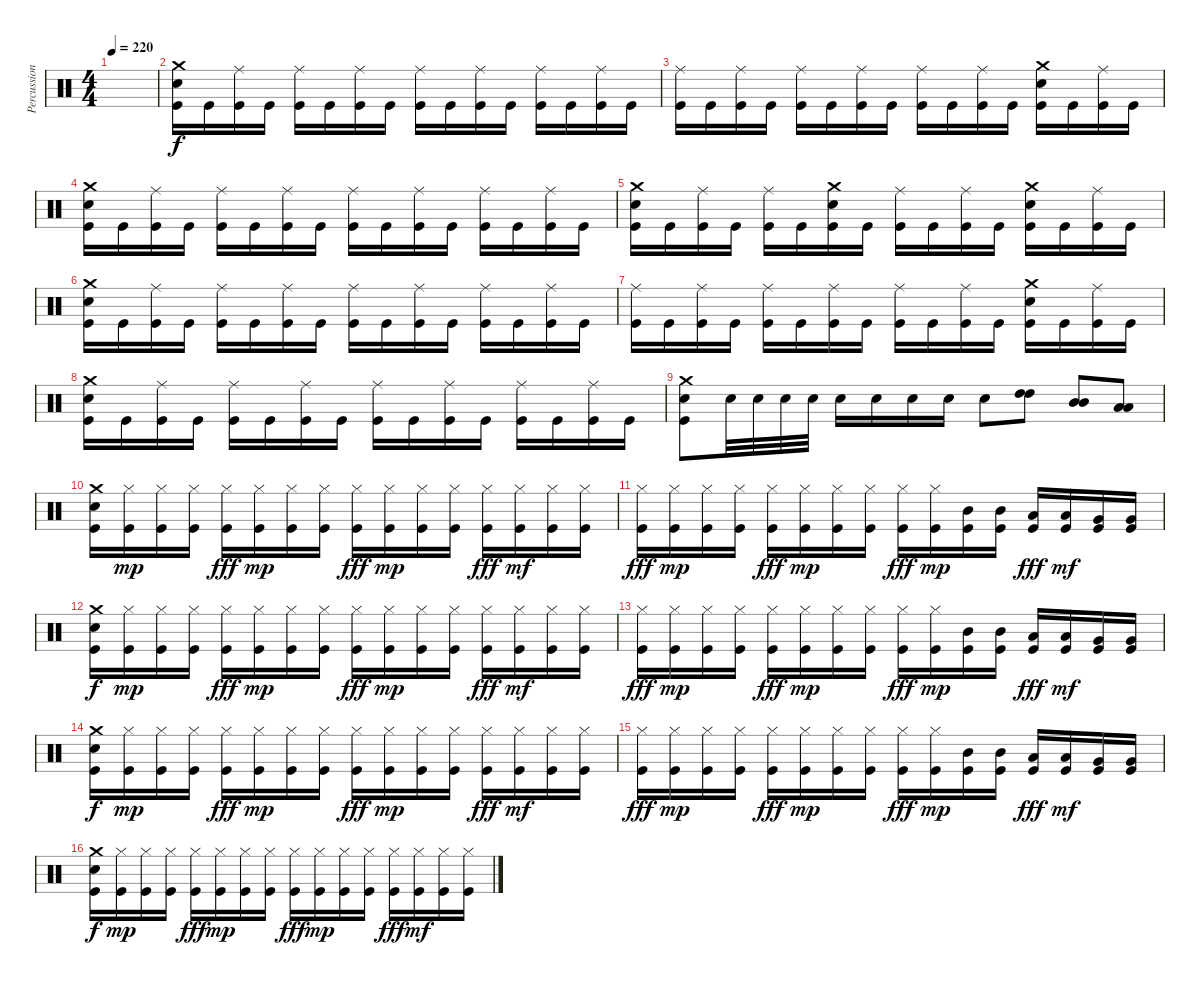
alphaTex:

\track ("Percussion" "Percussion") {instrument percussion}
\staff {score}
\articulation defaults
\ts (4 4)
\tempo 220
\tempo 140
\tempo 220
\clef neutral
\ks c
|
("Crash medium (hit)" "Snare (hit) 2" "Kick (hit)").16 "Kick (hit)".16 ("Ride (middle)" "Kick (hit)").16 "Kick (hit)".16 ("Ride (middle)" "Kick (hit)").16 "Kick (hit)".16 ("Ride (middle)" "Kick (hit)").16 "Kick (hit)".16 ("Ride (middle)" "Kick (hit)").16 "Kick (hit)".16 ("Ride (middle)" "Kick (hit)").16 "Kick (hit)".16 ("Ride (middle)" "Kick (hit)").16 "Kick (hit)".16 ("Ride (middle)" "Kick (hit)").16 "Kick (hit)".16 |
("Ride (middle)" "Kick (hit)").16 "Kick (hit)".16 ("Ride (middle)" "Kick (hit)").16 "Kick (hit)".16 ("Ride (middle)" "Kick (hit)").16 "Kick (hit)".16 ("Ride (middle)" "Kick (hit)").16 "Kick (hit)".16 ("Ride (middle)" "Kick (hit)").16 "Kick (hit)".16 ("Ride (middle)" "Kick (hit)").16 "Kick (hit)".16 ("Crash medium (hit)" "Snare (hit) 2" "Kick (hit)").16 "Kick (hit)".16 ("Ride (middle)" "Kick (hit)").16 "Kick (hit)".16 |
("Crash medium (hit)" "Snare (hit) 2" "Kick (hit)").16 "Kick (hit)".16 ("Ride (middle)" "Kick (hit)").16 "Kick (hit)".16 ("Ride (middle)" "Kick (hit)").16 "Kick (hit)".16 ("Ride (middle)" "Kick (hit)").16 "Kick (hit)".16 ("Ride (middle)" "Kick (hit)").16 "Kick (hit)".16 ("Ride (middle)" "Kick (hit)").16 "Kick (hit)".16 ("Ride (middle)" "Kick (hit)").16 "Kick (hit)".16 ("Ride (middle)" "Kick (hit)").16 "Kick (hit)".16 |
("Crash medium (hit)" "Snare (hit) 2" "Kick (hit)").16 "Kick (hit)".16 ("Ride (middle)" "Kick (hit)").16 "Kick (hit)".16 ("Ride (middle)" "Kick (hit)").16 "Kick (hit)".16 ("Crash medium (hit)" "Snare (hit) 2" "Kick (hit)").16 "Kick (hit)".16 ("Ride (middle)" "Kick (hit)").16 "Kick (hit)".16 ("Ride (middle)" "Kick (hit)").16 "Kick (hit)".16 ("Crash medium (hit)" "Snare (hit) 2" "Kick (hit)").16 "Kick (hit)".16 ("Ride (middle)" "Kick (hit)").16 "Kick (hit)".16 |
("Crash medium (hit)" "Snare (hit) 2" "Kick (hit)").16 "Kick (hit)".16 ("Ride (middle)" "Kick (hit)").16 "Kick (hit)".16 ("Ride (middle)" "Kick (hit)").16 "Kick (hit)".16 ("Ride (middle)" "Kick (hit)").16 "Kick (hit)".16 ("Ride (middle)" "Kick (hit)").16 "Kick (hit)".16 ("Ride (middle)" "Kick (hit)").16 "Kick (hit)".16 ("Ride (middle)" "Kick (hit)").16 "Kick (hit)".16 ("Ride (middle)" "Kick (hit)").16 "Kick (hit)".16 |
("Ride (middle)" "Kick (hit)").16 "Kick (hit)".16 ("Ride (middle)" "Kick (hit)").16 "Kick (hit)".16 ("Ride (middle)" "Kick (hit)").16 "Kick (hit)".16 ("Ride (middle)" "Kick (hit)").16 "Kick (hit)".16 ("Ride (middle)" "Kick (hit)").16 "Kick (hit)".16 ("Ride (middle)" "Kick (hit)").16 "Kick (hit)".16 ("Crash medium (hit)" "Snare (hit) 2" "Kick (hit)").16 "Kick (hit)".16 ("Ride (middle)" "Kick (hit)").16 "Kick (hit)".16 |
("Crash medium (hit)" "Snare (hit) 2" "Kick (hit)").16 "Kick (hit)".16 ("Ride (middle)" "Kick (hit)").16 "Kick (hit)".16 ("Ride (middle)" "Kick (hit)").16 "Kick (hit)".16 ("Ride (middle)" "Kick (hit)").16 "Kick (hit)".16 ("Ride (middle)" "Kick (hit)").16 "Kick (hit)".16 ("Ride (middle)" "Kick (hit)").16 "Kick (hit)".16 ("Ride (middle)" "Kick (hit)").16 "Kick (hit)".16 ("Ride (middle)" "Kick (hit)").16 "Kick (hit)".16 |
("Crash medium (hit)" "Snare (hit) 2" "Kick (hit)").8 "Snare (hit) 2".32 "Snare (hit) 2".32 "Snare (hit) 2".32 "Snare (hit) 2".32 "Snare (hit) 2".16 "Snare (hit) 2".16 "Snare (hit) 2".16 "Snare (hit) 2".16 "Snare (hit) 2".8 ("High Tom (hit)" "High Tom (hit)").8 ("Mid Tom (hit)" "Mid Tom (hit)").8 ("Low Tom (hit)" "Low Tom (hit)").8 |
("Crash medium (hit)" "Snare (hit) 2" "Kick (hit)").16 ("Hi-Hat (closed)" "Kick (hit)").16{dy mp} ("Hi-Hat (closed)" "Kick (hit)").16 ("Hi-Hat (closed)" "Kick (hit)").16 ("Hi-Hat (closed)" "Kick (hit)").16{dy fff} ("Hi-Hat (closed)" "Kick (hit)").16{dy mp} ("Hi-Hat (closed)" "Kick (hit)").16 ("Hi-Hat (closed)" "Kick (hit)").16 ("Hi-Hat (closed)" "Kick (hit)").16{dy fff} ("Hi-Hat (closed)" "Kick (hit)").16{dy mp} ("Hi-Hat (closed)" "Kick (hit)").16 ("Hi-Hat (closed)" "Kick (hit)").16 ("Hi-Hat (closed)" "Kick (hit)").16{dy fff} ("Hi-Hat (closed)" "Kick (hit)").16{dy mf} ("Hi-Hat (closed)" "Kick (hit)").16 ("Hi-Hat (closed)" "Kick (hit)").16 |
("Hi-Hat (closed)" "Kick (hit)").16{dy fff} ("Hi-Hat (closed)" "Kick (hit)").16{dy mp} ("Hi-Hat (closed)" "Kick (hit)").16 ("Hi-Hat (closed)" "Kick (hit)").16 ("Hi-Hat (closed)" "Kick (hit)").16{dy fff} ("Hi-Hat (closed)" "Kick (hit)").16{dy mp} ("Hi-Hat (closed)" "Kick (hit)").16 ("Hi-Hat (closed)" "Kick (hit)").16 ("Hi-Hat (closed)" "Kick (hit)").16{dy fff} ("Hi-Hat (closed)" "Kick (hit)").16{dy mp} ("Mid Tom (hit)" "Kick (hit)").16 ("Mid Tom (hit)" "Kick (hit)").16 ("Low Tom (hit)" "Kick (hit)").16{dy fff} ("Low Tom (hit)" "Kick (hit)").16{dy mf} ("Very Low Tom (hit)" "Kick (hit)").16 ("Very Low Tom (hit)" "Kick (hit)").16 |
("Crash medium (hit)" "Snare (hit) 2" "Kick (hit)").16{dy f} ("Hi-Hat (closed)" "Kick (hit)").16{dy mp} ("Hi-Hat (closed)" "Kick (hit)").16 ("Hi-Hat (closed)" "Kick (hit)").16 ("Hi-Hat (closed)" "Kick (hit)").16{dy fff} ("Hi-Hat (closed)" "Kick (hit)").16{dy mp} ("Hi-Hat (closed)" "Kick (hit)").16 ("Hi-Hat (closed)" "Kick (hit)").16 ("Hi-Hat (closed)" "Kick (hit)").16{dy fff} ("Hi-Hat (closed)" "Kick (hit)").16{dy mp} ("Hi-Hat (closed)" "Kick (hit)").16 ("Hi-Hat (closed)" "Kick (hit)").16 ("Hi-Hat (closed)" "Kick (hit)").16{dy fff} ("Hi-Hat (closed)" "Kick (hit)").16{dy mf} ("Hi-Hat (closed)" "Kick (hit)").16 ("Hi-Hat (closed)" "Kick (hit)").16 |
("Hi-Hat (closed)" "Kick (hit)").16{dy fff} ("Hi-Hat (closed)" "Kick (hit)").16{dy mp} ("Hi-Hat (closed)" "Kick (hit)").16 ("Hi-Hat (closed)" "Kick (hit)").16 ("Hi-Hat (closed)" "Kick (hit)").16{dy fff} ("Hi-Hat (closed)" "Kick (hit)").16{dy mp} ("Hi-Hat (closed)" "Kick (hit)").16 ("Hi-Hat (closed)" "Kick (hit)").16 ("Hi-Hat (closed)" "Kick (hit)").16{dy fff} ("Hi-Hat (closed)" "Kick (hit)").16{dy mp} ("Mid Tom (hit)" "Kick (hit)").16 ("Mid Tom (hit)" "Kick (hit)").16 ("Low Tom (hit)" "Kick (hit)").16{dy fff} ("Low Tom (hit)" "Kick (hit)").16{dy mf} ("Very Low Tom (hit)" "Kick (hit)").16 ("Very Low Tom (hit)" "Kick (hit)").16 |
("Crash medium (hit)" "Snare (hit) 2" "Kick (hit)").16{dy f} ("Hi-Hat (closed)" "Kick (hit)").16{dy mp} ("Hi-Hat (closed)" "Kick (hit)").16 ("Hi-Hat (closed)" "Kick (hit)").16 ("Hi-Hat (closed)" "Kick (hit)").16{dy fff} ("Hi-Hat (closed)" "Kick (hit)").16{dy mp} ("Hi-Hat (closed)" "Kick (hit)").16 ("Hi-Hat (closed)" "Kick (hit)").16 ("Hi-Hat (closed)" "Kick (hit)").16{dy fff} ("Hi-Hat (closed)" "Kick (hit)").16{dy mp} ("Hi-Hat (closed)" "Kick (hit)").16 ("Hi-Hat (closed)" "Kick (hit)").16 ("Hi-Hat (closed)" "Kick (hit)").16{dy fff} ("Hi-Hat (closed)" "Kick (hit)").16{dy mf} ("Hi-Hat (closed)" "Kick (hit)").16 ("Hi-Hat (closed)" "Kick (hit)").16 |
("Hi-Hat (closed)" "Kick (hit)").16{dy fff} ("Hi-Hat (closed)" "Kick (hit)").16{dy mp} ("Hi-Hat (closed)" "Kick (hit)").16 ("Hi-Hat (closed)" "Kick (hit)").16 ("Hi-Hat (closed)" "Kick (hit)").16{dy fff} ("Hi-Hat (closed)" "Kick (hit)").16{dy mp} ("Hi-Hat (closed)" "Kick (hit)").16 ("Hi-Hat (closed)" "Kick (hit)").16 ("Hi-Hat (closed)" "Kick (hit)").16{dy fff} ("Hi-Hat (closed)" "Kick (hit)").16{dy mp} ("Mid Tom (hit)" "Kick (hit)").16 ("Mid Tom (hit)" "Kick (hit)").16 ("Low Tom (hit)" "Kick (hit)").16{dy fff} ("Low Tom (hit)" "Kick (hit)").16{dy mf} ("Very Low Tom (hit)" "Kick (hit)").16 ("Very Low Tom (hit)" "Kick (hit)").16 |
("Crash medium (hit)" "Snare (hit) 2" "Kick (hit)").16{dy f} ("Hi-Hat (closed)" "Kick (hit)").16{dy mp} ("Hi-Hat (closed)" "Kick (hit)").16 ("Hi-Hat (closed)" "Kick (hit)").16 ("Hi-Hat (closed)" "Kick (hit)").16{dy fff} ("Hi-Hat (closed)" "Kick (hit)").16{dy mp} ("Hi-Hat (closed)" "Kick (hit)").16 ("Hi-Hat (closed)" "Kick (hit)").16 ("Hi-Hat (closed)" "Kick (hit)").16{dy fff} ("Hi-Hat (closed)" "Kick (hit)").16{dy mp} ("Hi-Hat (closed)" "Kick (hit)").16 ("Hi-Hat (closed)" "Kick (hit)").16 ("Hi-Hat (closed)" "Kick (hit)").16{dy fff} ("Hi-Hat (closed)" "Kick (hit)").16{dy mf} ("Hi-Hat (closed)" "Kick (hit)").16 ("Hi-Hat (closed)" "Kick (hit)").16
